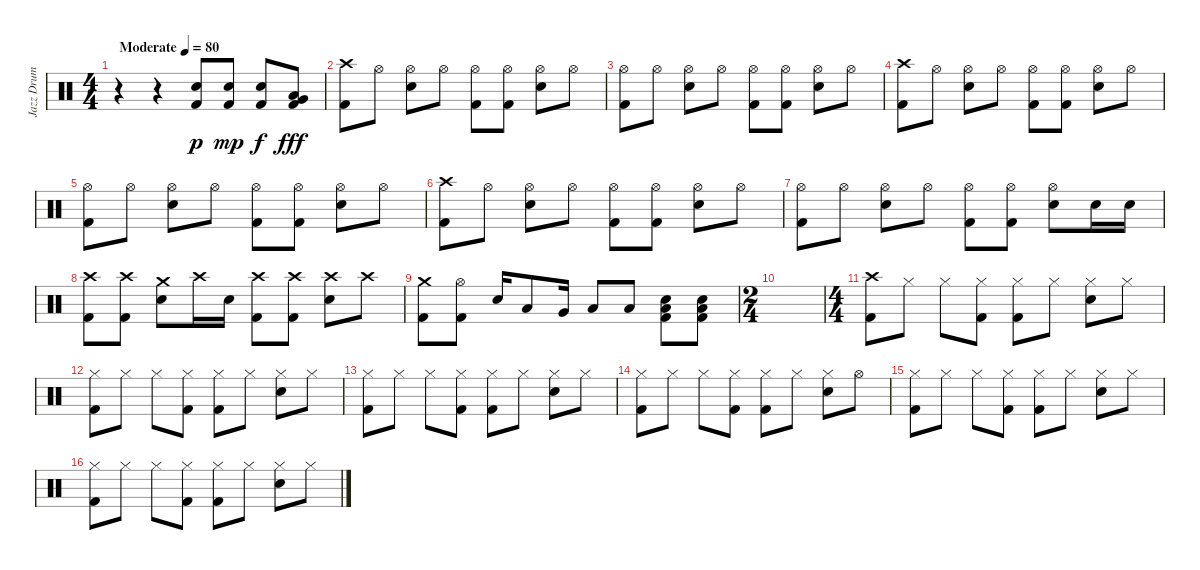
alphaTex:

\track ("Jazz Drum" "Jazz Drum") {instrument percussion}
\staff {score}
\articulation defaults
\ts (4 4)
\tempo (80 "Moderate")
\clef neutral
\ks c
r.4{dy p} r.4 ("Electric Snare (hit)" "Kick (hit) 2").8 ("Electric Snare (hit)" "Kick (hit) 2").8{dy mp} ("Electric Snare (hit)" "Kick (hit) 2").8{dy f} ("Low Tom (hit)" "Very Low Tom (hit)" "Kick (hit) 2").8{dy fff} |
("Crash high (hit)" "Kick (hit) 2").8 "Hi-Hat (open)".8 ("Hi-Hat (open)" "Electric Snare (hit)").8 "Hi-Hat (open)".8 ("Hi-Hat (open)" "Kick (hit) 2").8 ("Hi-Hat (open)" "Kick (hit) 2").8 ("Hi-Hat (open)" "Electric Snare (hit)").8 "Hi-Hat (open)".8 |
("Hi-Hat (open)" "Kick (hit) 2").8 "Hi-Hat (open)".8 ("Hi-Hat (open)" "Electric Snare (hit)").8 "Hi-Hat (open)".8 ("Hi-Hat (open)" "Kick (hit) 2").8 ("Hi-Hat (open)" "Kick (hit) 2").8 ("Hi-Hat (open)" "Electric Snare (hit)").8 "Hi-Hat (open)".8 |
("Crash high (hit)" "Kick (hit) 2").8 "Hi-Hat (open)".8 ("Hi-Hat (open)" "Electric Snare (hit)").8 "Hi-Hat (open)".8 ("Hi-Hat (open)" "Kick (hit) 2").8 ("Hi-Hat (open)" "Kick (hit) 2").8 ("Hi-Hat (open)" "Electric Snare (hit)").8 "Hi-Hat (open)".8 |
("Hi-Hat (open)" "Kick (hit) 2").8 "Hi-Hat (open)".8 ("Hi-Hat (open)" "Electric Snare (hit)").8 "Hi-Hat (open)".8 ("Hi-Hat (open)" "Kick (hit) 2").8 ("Hi-Hat (open)" "Kick (hit) 2").8 ("Hi-Hat (open)" "Electric Snare (hit)").8 "Hi-Hat (open)".8 |
("Crash high (hit)" "Kick (hit) 2").8 "Hi-Hat (open)".8 ("Hi-Hat (open)" "Electric Snare (hit)").8 "Hi-Hat (open)".8 ("Hi-Hat (open)" "Kick (hit) 2").8 ("Hi-Hat (open)" "Kick (hit) 2").8 ("Hi-Hat (open)" "Electric Snare (hit)").8 "Hi-Hat (open)".8 |
("Hi-Hat (open)" "Kick (hit) 2").8 "Hi-Hat (open)".8 ("Hi-Hat (open)" "Electric Snare (hit)").8 "Hi-Hat (open)".8 ("Hi-Hat (open)" "Kick (hit) 2").8 ("Hi-Hat (open)" "Kick (hit) 2").8 ("Hi-Hat (open)" "Electric Snare (hit)").8 "Electric Snare (hit)".16 "Electric Snare (hit)".16 |
("Crash high (hit)" "Kick (hit) 2").8 ("Crash high (hit)" "Kick (hit) 2").8 ("Crash medium (hit)" "Electric Snare (hit)").8 "Crash high (hit)".16 "Electric Snare (hit)".16 ("Crash high (hit)" "Kick (hit) 2").8 ("Crash high (hit)" "Kick (hit) 2").8 ("Crash high (hit)" "Electric Snare (hit)").8 "Crash high (hit)".8 |
("Crash medium (hit)" "Kick (hit) 2").8 ("Hi-Hat (open)" "Kick (hit) 2").8 "Electric Snare (hit)".16 "Low Tom (hit)".8 "Very Low Tom (hit)".16 "Low Floor Tom (hit)".8 "Low Floor Tom (hit)".8 ("Electric Snare (hit)" "Low Floor Tom (hit)" "Kick (hit) 2").8 ("Electric Snare (hit)" "Low Floor Tom (hit)" "Kick (hit) 2").8 |
\ts (2 4)
|
\ts (4 4)
("Crash high (hit)" "Kick (hit) 2").8 "Hi-Hat (closed)".8 "Hi-Hat (closed)".8 ("Hi-Hat (closed)" "Kick (hit) 2").8 ("Hi-Hat (closed)" "Kick (hit) 2").8 "Hi-Hat (closed)".8 ("Hi-Hat (closed)" "Electric Snare (hit)").8 "Hi-Hat (closed)".8 |
("Hi-Hat (closed)" "Kick (hit) 2").8 "Hi-Hat (closed)".8 "Hi-Hat (closed)".8 ("Hi-Hat (closed)" "Kick (hit) 2").8 ("Hi-Hat (closed)" "Kick (hit) 2").8 "Hi-Hat (closed)".8 ("Hi-Hat (closed)" "Electric Snare (hit)").8 "Hi-Hat (closed)".8 |
("Hi-Hat (closed)" "Kick (hit) 2").8 "Hi-Hat (closed)".8 "Hi-Hat (closed)".8 ("Hi-Hat (closed)" "Kick (hit) 2").8 ("Hi-Hat (closed)" "Kick (hit) 2").8 "Hi-Hat (closed)".8 ("Hi-Hat (closed)" "Electric Snare (hit)").8 "Hi-Hat (closed)".8 |
("Hi-Hat (closed)" "Kick (hit) 2").8 "Hi-Hat (closed)".8 "Hi-Hat (closed)".8 ("Hi-Hat (closed)" "Kick (hit) 2").8 ("Hi-Hat (closed)" "Kick (hit) 2").8 "Hi-Hat (closed)".8 ("Hi-Hat (closed)" "Electric Snare (hit)").8 "Hi-Hat (open)".8 |
("Hi-Hat (closed)" "Kick (hit) 2").8 "Hi-Hat (closed)".8 "Hi-Hat (closed)".8 ("Hi-Hat (closed)" "Kick (hit) 2").8 ("Hi-Hat (closed)" "Kick (hit) 2").8 "Hi-Hat (closed)".8 ("Hi-Hat (closed)" "Electric Snare (hit)").8 "Hi-Hat (closed)".8 |
("Hi-Hat (closed)" "Kick (hit) 2").8 "Hi-Hat (closed)".8 "Hi-Hat (closed)".8 ("Hi-Hat (closed)" "Kick (hit) 2").8 ("Hi-Hat (closed)" "Kick (hit) 2").8 "Hi-Hat (closed)".8 ("Hi-Hat (closed)" "Electric Snare (hit)").8 "Hi-Hat (closed)".8
